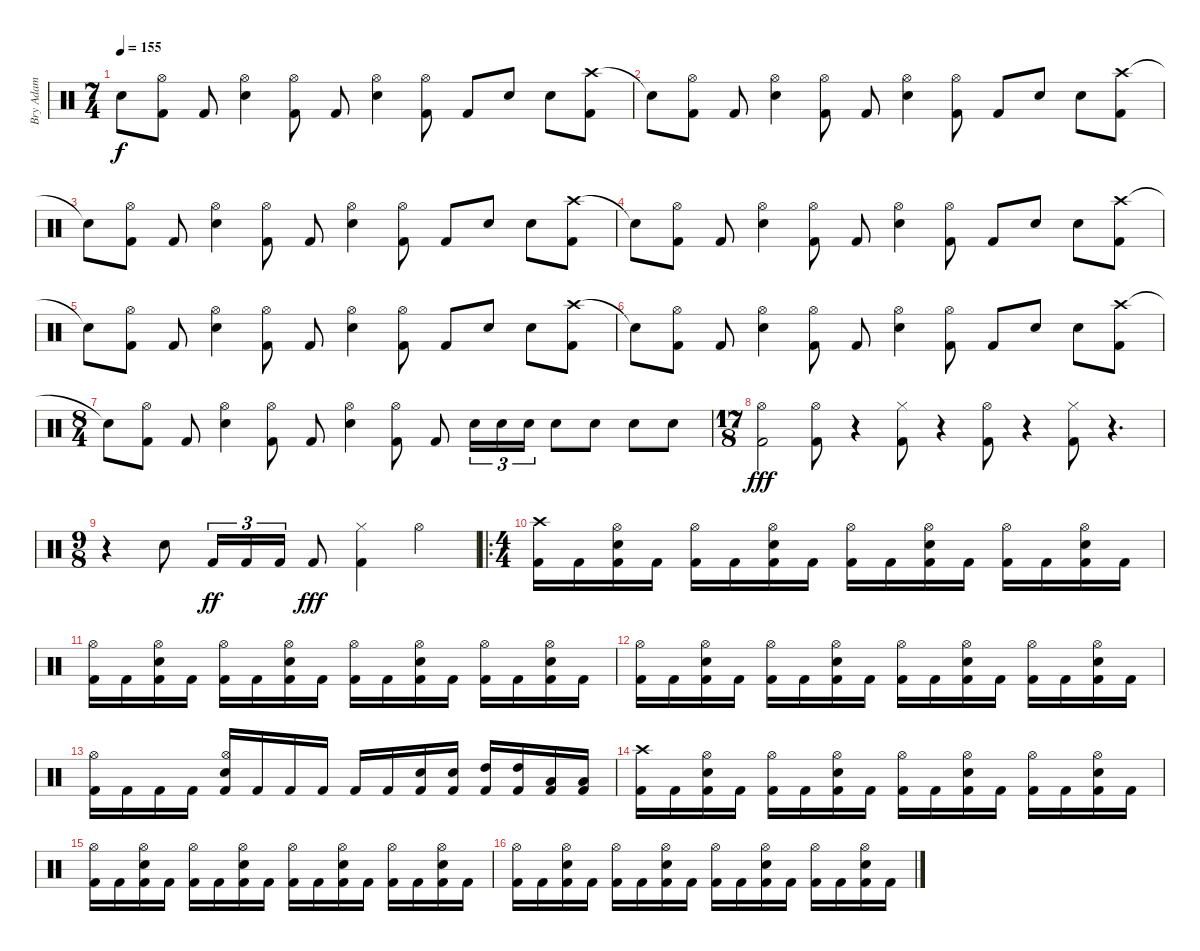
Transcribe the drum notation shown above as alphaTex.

\track ("Bry Adam " "Bry Adam ") {instrument percussion}
\staff {score}
\articulation defaults
\ts (7 4)
\tempo 155
\clef neutral
\ks c "Snare (hit)"{t}.8{dy f}
("Hi-Hat (open)" "Kick (hit) 2").8 "Kick (hit) 2".8 ("Hi-Hat (open)" "Snare (hit) 2").4 ("Hi-Hat (open)" "Kick (hit) 2").8 "Kick (hit) 2".8 ("Hi-Hat (open)" "Snare (hit) 2").4 ("Hi-Hat (open)" "Kick (hit) 2").8 "Kick (hit) 2".8 "Snare (hit) 2".8 "Snare (hit) 2".8 ("Crash high (hit)" "Kick (hit) 2").8 |
"Snare (hit)"{t}.8 ("Hi-Hat (open)" "Kick (hit) 2").8 "Kick (hit) 2".8 ("Hi-Hat (open)" "Snare (hit) 2").4 ("Hi-Hat (open)" "Kick (hit) 2").8 "Kick (hit) 2".8 ("Hi-Hat (open)" "Snare (hit) 2").4 ("Hi-Hat (open)" "Kick (hit) 2").8 "Kick (hit) 2".8 "Snare (hit) 2".8 "Snare (hit) 2".8 ("Crash high (hit)" "Kick (hit) 2").8 |
"Snare (hit)"{t}.8 ("Hi-Hat (open)" "Kick (hit) 2").8 "Kick (hit) 2".8 ("Hi-Hat (open)" "Snare (hit) 2").4 ("Hi-Hat (open)" "Kick (hit) 2").8 "Kick (hit) 2".8 ("Hi-Hat (open)" "Snare (hit) 2").4 ("Hi-Hat (open)" "Kick (hit) 2").8 "Kick (hit) 2".8 "Snare (hit) 2".8 "Snare (hit) 2".8 ("Crash high (hit)" "Kick (hit) 2").8 |
"Snare (hit)"{t}.8 ("Hi-Hat (open)" "Kick (hit) 2").8 "Kick (hit) 2".8 ("Hi-Hat (open)" "Snare (hit) 2").4 ("Hi-Hat (open)" "Kick (hit) 2").8 "Kick (hit) 2".8 ("Hi-Hat (open)" "Snare (hit) 2").4 ("Hi-Hat (open)" "Kick (hit) 2").8 "Kick (hit) 2".8 "Snare (hit) 2".8 "Snare (hit) 2".8 ("Crash high (hit)" "Kick (hit) 2").8 |
"Snare (hit)"{t}.8 ("Hi-Hat (open)" "Kick (hit) 2").8 "Kick (hit) 2".8 ("Hi-Hat (open)" "Snare (hit) 2").4 ("Hi-Hat (open)" "Kick (hit) 2").8 "Kick (hit) 2".8 ("Hi-Hat (open)" "Snare (hit) 2").4 ("Hi-Hat (open)" "Kick (hit) 2").8 "Kick (hit) 2".8 "Snare (hit) 2".8 "Snare (hit) 2".8 ("Crash high (hit)" "Kick (hit) 2").8 |
"Snare (hit)"{t}.8 ("Hi-Hat (open)" "Kick (hit) 2").8 "Kick (hit) 2".8 ("Hi-Hat (open)" "Snare (hit) 2").4 ("Hi-Hat (open)" "Kick (hit) 2").8 "Kick (hit) 2".8 ("Hi-Hat (open)" "Snare (hit) 2").4 ("Hi-Hat (open)" "Kick (hit) 2").8 "Kick (hit) 2".8 "Snare (hit) 2".8 "Snare (hit) 2".8 ("Crash high (hit)" "Kick (hit) 2").8 |
\ts (8 4)
"Snare (hit)"{t}.8 ("Hi-Hat (open)" "Kick (hit) 2").8 "Kick (hit) 2".8 ("Hi-Hat (open)" "Snare (hit) 2").4 ("Hi-Hat (open)" "Kick (hit) 2").8 "Kick (hit) 2".8 ("Hi-Hat (open)" "Snare (hit) 2").4 ("Hi-Hat (open)" "Kick (hit) 2").8 "Kick (hit) 2".8 "Snare (hit) 2".16{tu (3 2)} "Snare (hit) 2".16{tu (3 2)} "Snare (hit) 2".16{tu (3 2)} "Snare (hit) 2".8 "Snare (hit) 2".8 "Snare (hit) 2".8 "Snare (hit) 2".8 |
\ts (17 8)
("Hi-Hat (open)" "Kick (hit) 2").2{dy fff} ("Hi-Hat (open)" "Kick (hit) 2").8 r.4 ("Hi-Hat (closed)" "Kick (hit) 2").8 r.4 ("Hi-Hat (open)" "Kick (hit) 2").8 r.4 ("Hi-Hat (closed)" "Kick (hit) 2").8 r.4{d} |
\ts (9 8)
r.4 "Snare (hit) 2".8 "Kick (hit) 2".16{tu (3 2) dy ff} "Kick (hit) 2".16{tu (3 2)} "Kick (hit) 2".16{tu (3 2)} "Kick (hit) 2".8{dy fff} ("Hi-Hat (closed)" "Kick (hit) 2").4 "Hi-Hat (open)".4 |
\ro
\ts (4 4)
("Crash high (hit)" "Kick (hit) 2").16 "Kick (hit) 2".16 ("Hi-Hat (open)" "Snare (hit) 2" "Kick (hit) 2").16 "Kick (hit) 2".16 ("Hi-Hat (open)" "Kick (hit) 2").16 "Kick (hit) 2".16 ("Hi-Hat (open)" "Snare (hit) 2" "Kick (hit) 2").16 "Kick (hit) 2".16 ("Hi-Hat (open)" "Kick (hit) 2").16 "Kick (hit) 2".16 ("Hi-Hat (open)" "Snare (hit) 2" "Kick (hit) 2").16 "Kick (hit) 2".16 ("Hi-Hat (open)" "Kick (hit) 2").16 "Kick (hit) 2".16 ("Hi-Hat (open)" "Snare (hit) 2" "Kick (hit) 2").16 "Kick (hit) 2".16 |
("Hi-Hat (open)" "Kick (hit) 2").16 "Kick (hit) 2".16 ("Hi-Hat (open)" "Snare (hit) 2" "Kick (hit) 2").16 "Kick (hit) 2".16 ("Hi-Hat (open)" "Kick (hit) 2").16 "Kick (hit) 2".16 ("Hi-Hat (open)" "Snare (hit) 2" "Kick (hit) 2").16 "Kick (hit) 2".16 ("Hi-Hat (open)" "Kick (hit) 2").16 "Kick (hit) 2".16 ("Hi-Hat (open)" "Snare (hit) 2" "Kick (hit) 2").16 "Kick (hit) 2".16 ("Hi-Hat (open)" "Kick (hit) 2").16 "Kick (hit) 2".16 ("Hi-Hat (open)" "Snare (hit) 2" "Kick (hit) 2").16 "Kick (hit) 2".16 |
("Hi-Hat (open)" "Kick (hit) 2").16 "Kick (hit) 2".16 ("Hi-Hat (open)" "Snare (hit) 2" "Kick (hit) 2").16 "Kick (hit) 2".16 ("Hi-Hat (open)" "Kick (hit) 2").16 "Kick (hit) 2".16 ("Hi-Hat (open)" "Snare (hit) 2" "Kick (hit) 2").16 "Kick (hit) 2".16 ("Hi-Hat (open)" "Kick (hit) 2").16 "Kick (hit) 2".16 ("Hi-Hat (open)" "Snare (hit) 2" "Kick (hit) 2").16 "Kick (hit) 2".16 ("Hi-Hat (open)" "Kick (hit) 2").16 "Kick (hit) 2".16 ("Hi-Hat (open)" "Snare (hit) 2" "Kick (hit) 2").16 "Kick (hit) 2".16 |
("Hi-Hat (open)" "Kick (hit) 2").16 "Kick (hit) 2".16 "Kick (hit) 2".16 "Kick (hit) 2".16 ("Hi-Hat (open)" "Snare (hit) 2" "Kick (hit) 2").16 "Kick (hit) 2".16 "Kick (hit) 2".16 "Kick (hit) 2".16 "Kick (hit) 2".16 "Kick (hit) 2".16 ("Snare (hit) 2" "Kick (hit) 2").16 ("Snare (hit) 2" "Kick (hit) 2").16 ("High Tom (hit)" "Kick (hit) 2").16 ("High Tom (hit)" "Kick (hit) 2").16 ("Low Tom (hit)" "Kick (hit) 2").16 ("Low Tom (hit)" "Kick (hit) 2").16 |
("Crash high (hit)" "Kick (hit) 2").16 "Kick (hit) 2".16 ("Hi-Hat (open)" "Snare (hit) 2" "Kick (hit) 2").16 "Kick (hit) 2".16 ("Hi-Hat (open)" "Kick (hit) 2").16 "Kick (hit) 2".16 ("Hi-Hat (open)" "Snare (hit) 2" "Kick (hit) 2").16 "Kick (hit) 2".16 ("Hi-Hat (open)" "Kick (hit) 2").16 "Kick (hit) 2".16 ("Hi-Hat (open)" "Snare (hit) 2" "Kick (hit) 2").16 "Kick (hit) 2".16 ("Hi-Hat (open)" "Kick (hit) 2").16 "Kick (hit) 2".16 ("Hi-Hat (open)" "Snare (hit) 2" "Kick (hit) 2").16 "Kick (hit) 2".16 |
("Hi-Hat (open)" "Kick (hit) 2").16 "Kick (hit) 2".16 ("Hi-Hat (open)" "Snare (hit) 2" "Kick (hit) 2").16 "Kick (hit) 2".16 ("Hi-Hat (open)" "Kick (hit) 2").16 "Kick (hit) 2".16 ("Hi-Hat (open)" "Snare (hit) 2" "Kick (hit) 2").16 "Kick (hit) 2".16 ("Hi-Hat (open)" "Kick (hit) 2").16 "Kick (hit) 2".16 ("Hi-Hat (open)" "Snare (hit) 2" "Kick (hit) 2").16 "Kick (hit) 2".16 ("Hi-Hat (open)" "Kick (hit) 2").16 "Kick (hit) 2".16 ("Hi-Hat (open)" "Snare (hit) 2" "Kick (hit) 2").16 "Kick (hit) 2".16 |
("Hi-Hat (open)" "Kick (hit) 2").16 "Kick (hit) 2".16 ("Hi-Hat (open)" "Snare (hit) 2" "Kick (hit) 2").16 "Kick (hit) 2".16 ("Hi-Hat (open)" "Kick (hit) 2").16 "Kick (hit) 2".16 ("Hi-Hat (open)" "Snare (hit) 2" "Kick (hit) 2").16 "Kick (hit) 2".16 ("Hi-Hat (open)" "Kick (hit) 2").16 "Kick (hit) 2".16 ("Hi-Hat (open)" "Snare (hit) 2" "Kick (hit) 2").16 "Kick (hit) 2".16 ("Hi-Hat (open)" "Kick (hit) 2").16 "Kick (hit) 2".16 ("Hi-Hat (open)" "Snare (hit) 2" "Kick (hit) 2").16 "Kick (hit) 2".16
